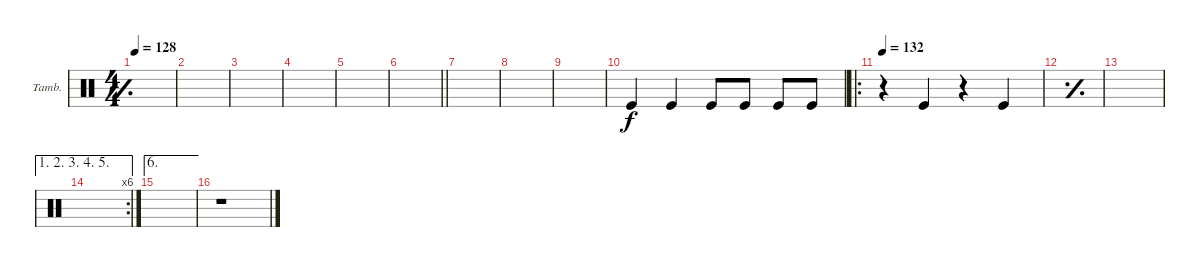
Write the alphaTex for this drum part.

\defaultSystemsLayout 4
\bracketExtendMode groupsimilarinstruments
\firstSystemTrackNameOrientation horizontal
\otherSystemsTrackNameOrientation horizontal
\track ("Tambourine" "Tamb.") {instrument percussion}
\staff {score}
\articulation defaults
\ts (4 4)
\tempo 128
\clef neutral
\simile simple
\scale
0.333333
\ks c
|
\scale
0.333333 |
\scale
0.333333 |
\scale
0.333333 |
\scale
0.333333 |
\scale
0.333333
\barLineRight lightlight
|
\scale
0.333333 |
\scale
0.333333 |
\scale
0.311475 |
\simile none
\scale
0.311475 "Kick (hit)".4 "Kick (hit)".4 "Kick (hit)".8 "Kick (hit)".8 "Kick (hit)".8 "Kick (hit)".8 |
\ro
\tempo 132
\scale
0.377049 r.4 "Kick (hit)".4 r.4 "Kick (hit)".4 |
\simile simple
\scale
0.322034 |
\scale
0.322034 |
\ae (1 2 3 4 5)
\rc 6
\scale
0.355932 |
\ae 6
|
\simile none
r.1
